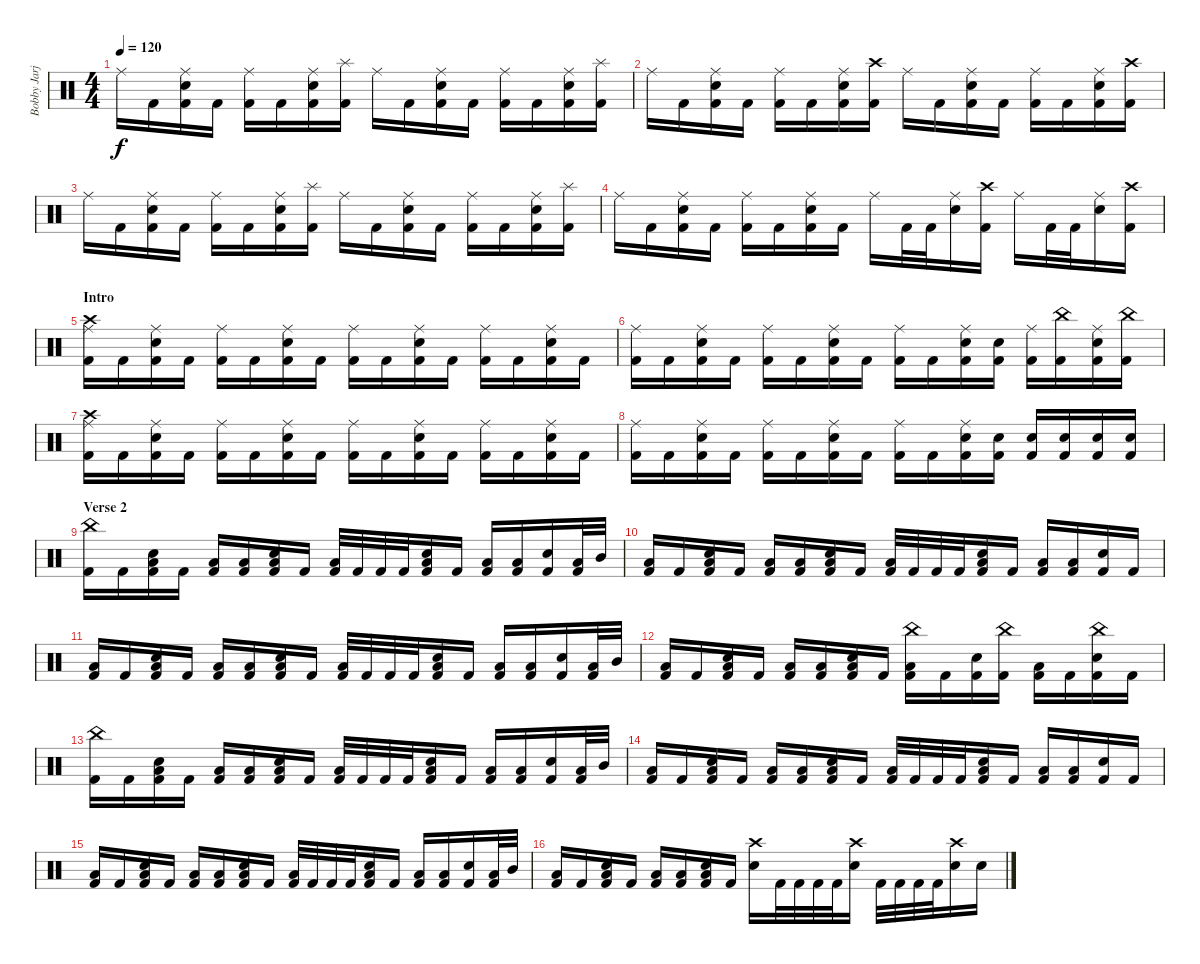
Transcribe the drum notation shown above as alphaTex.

\track ("Bobby Jarjombek" "Bobby Jarj") {instrument percussion}
\staff {score}
\articulation defaults
\ts (4 4)
\tempo 120
\clef neutral
\ks c "Ride (middle)".16{dy f} "Kick (hit) 2".16
("Kick (hit) 2" "Ride (middle)" "Electric Snare (hit)").16 "Kick (hit) 2".16 ("Kick (hit) 2" "Ride (middle)").16 "Kick (hit) 2".16 ("Kick (hit) 2" "Ride (middle)" "Electric Snare (hit)").16 ("Kick (hit) 2" "Splash (hit)").16 "Ride (middle)".16 "Kick (hit) 2".16 ("Kick (hit) 2" "Ride (middle)" "Electric Snare (hit)").16 "Kick (hit) 2".16 ("Kick (hit) 2" "Ride (middle)").16 "Kick (hit) 2".16 ("Kick (hit) 2" "Ride (middle)" "Electric Snare (hit)").16 ("Kick (hit) 2" "Splash (hit)").16 |
"Ride (middle)".16 "Kick (hit) 2".16 ("Kick (hit) 2" "Ride (middle)" "Electric Snare (hit)").16 "Kick (hit) 2".16 ("Kick (hit) 2" "Ride (middle)").16 "Kick (hit) 2".16 ("Kick (hit) 2" "Ride (middle)" "Electric Snare (hit)").16 ("Kick (hit) 2" "Crash high (hit)").16 "Ride (middle)".16 "Kick (hit) 2".16 ("Kick (hit) 2" "Ride (middle)" "Electric Snare (hit)").16 "Kick (hit) 2".16 ("Kick (hit) 2" "Ride (middle)").16 "Kick (hit) 2".16 ("Kick (hit) 2" "Ride (middle)" "Electric Snare (hit)").16 ("Kick (hit) 2" "Crash high (hit)").16 |
"Ride (middle)".16 "Kick (hit) 2".16 ("Kick (hit) 2" "Ride (middle)" "Electric Snare (hit)").16 "Kick (hit) 2".16 ("Kick (hit) 2" "Ride (middle)").16 "Kick (hit) 2".16 ("Kick (hit) 2" "Ride (middle)" "Electric Snare (hit)").16 ("Kick (hit) 2" "Splash (hit)").16 "Ride (middle)".16 "Kick (hit) 2".16 ("Kick (hit) 2" "Ride (middle)" "Electric Snare (hit)").16 "Kick (hit) 2".16 ("Kick (hit) 2" "Ride (middle)").16 "Kick (hit) 2".16 ("Kick (hit) 2" "Ride (middle)" "Electric Snare (hit)").16 ("Kick (hit) 2" "Splash (hit)").16 |
"Ride (middle)".16 "Kick (hit) 2".16 ("Kick (hit) 2" "Ride (middle)" "Electric Snare (hit)").16 "Kick (hit) 2".16 ("Kick (hit) 2" "Ride (middle)").16 "Kick (hit) 2".16 ("Kick (hit) 2" "Ride (middle)" "Electric Snare (hit)").16 "Kick (hit) 2".16 "Ride (middle)".16 "Kick (hit) 2".32 "Kick (hit) 2".32 ("Ride (middle)" "Electric Snare (hit)").16 ("Kick (hit) 2" "Crash high (hit)").16 "Ride (middle)".16 "Kick (hit) 2".32 "Kick (hit) 2".32 ("Ride (middle)" "Electric Snare (hit)").16 ("Kick (hit) 2" "Crash high (hit)").16 |
\section ("" "Intro")
("Kick (hit) 2" "Crash high (hit)" "Ride (middle)").16 "Kick (hit) 2".16 ("Kick (hit) 2" "Ride (middle)" "Electric Snare (hit)").16 "Kick (hit) 2".16 ("Kick (hit) 2" "Ride (middle)").16 "Kick (hit) 2".16 ("Kick (hit) 2" "Ride (middle)" "Electric Snare (hit)").16 "Kick (hit) 2".16 ("Kick (hit) 2" "Ride (middle)").16 "Kick (hit) 2".16 ("Kick (hit) 2" "Ride (middle)" "Electric Snare (hit)").16 "Kick (hit) 2".16 ("Kick (hit) 2" "Ride (middle)").16 "Kick (hit) 2".16 ("Kick (hit) 2" "Ride (middle)" "Electric Snare (hit)").16 "Kick (hit) 2".16 |
("Kick (hit) 2" "Ride (middle)").16 "Kick (hit) 2".16 ("Kick (hit) 2" "Ride (middle)" "Electric Snare (hit)").16 "Kick (hit) 2".16 ("Kick (hit) 2" "Ride (middle)").16 "Kick (hit) 2".16 ("Kick (hit) 2" "Ride (middle)" "Electric Snare (hit)").16 "Kick (hit) 2".16 ("Kick (hit) 2" "Ride (middle)").16 "Kick (hit) 2".16 ("Kick (hit) 2" "Ride (middle)" "Electric Snare (hit)").16 ("Kick (hit) 2" "Electric Snare (hit)").16 ("Kick (hit) 2" "Ride (middle)").16 ("Kick (hit) 2" "China (hit)").16 ("Kick (hit) 2" "Ride (middle)" "Electric Snare (hit)").16 ("Kick (hit) 2" "China (hit)").16 |
("Kick (hit) 2" "Crash high (hit)" "Ride (middle)").16 "Kick (hit) 2".16 ("Kick (hit) 2" "Ride (middle)" "Electric Snare (hit)").16 "Kick (hit) 2".16 ("Kick (hit) 2" "Ride (middle)").16 "Kick (hit) 2".16 ("Kick (hit) 2" "Ride (middle)" "Electric Snare (hit)").16 "Kick (hit) 2".16 ("Kick (hit) 2" "Ride (middle)").16 "Kick (hit) 2".16 ("Kick (hit) 2" "Ride (middle)" "Electric Snare (hit)").16 "Kick (hit) 2".16 ("Kick (hit) 2" "Ride (middle)").16 "Kick (hit) 2".16 ("Kick (hit) 2" "Ride (middle)" "Electric Snare (hit)").16 "Kick (hit) 2".16 |
("Kick (hit) 2" "Ride (middle)").16 "Kick (hit) 2".16 ("Kick (hit) 2" "Ride (middle)" "Electric Snare (hit)").16 "Kick (hit) 2".16 ("Kick (hit) 2" "Ride (middle)").16 "Kick (hit) 2".16 ("Kick (hit) 2" "Ride (middle)" "Electric Snare (hit)").16 "Kick (hit) 2".16 ("Kick (hit) 2" "Ride (middle)").16 "Kick (hit) 2".16 ("Kick (hit) 2" "Ride (middle)" "Electric Snare (hit)").16 ("Kick (hit) 2" "Electric Snare (hit)").16 ("Kick (hit) 2" "Electric Snare (hit)").16 ("Kick (hit) 2" "Electric Snare (hit)").16 ("Kick (hit) 2" "Electric Snare (hit)").16 ("Kick (hit) 2" "Electric Snare (hit)").16 |
\section ("" "Verse 2")
("Kick (hit) 2" "China (hit)").16 "Kick (hit) 2".16 ("Kick (hit) 2" "Electric Snare (hit)" "Low Tom (hit)").16 "Kick (hit) 2".16 ("Kick (hit) 2" "Low Tom (hit)").16 ("Kick (hit) 2" "Low Tom (hit)").16 ("Kick (hit) 2" "Electric Snare (hit)" "Low Tom (hit)").16 "Kick (hit) 2".16 ("Kick (hit) 2" "Low Tom (hit)").32 "Kick (hit) 2".32 "Kick (hit) 2".32 "Kick (hit) 2".32 ("Kick (hit) 2" "Electric Snare (hit)" "Low Tom (hit)").16 "Kick (hit) 2".16 ("Kick (hit) 2" "Low Tom (hit)").16 ("Kick (hit) 2" "Low Tom (hit)").16 ("Kick (hit) 2" "Electric Snare (hit)").16 ("Kick (hit) 2" "Low Tom (hit)").32 "Mid Tom (hit)".32 |
("Kick (hit) 2" "Low Tom (hit)").16 "Kick (hit) 2".16 ("Kick (hit) 2" "Electric Snare (hit)" "Low Tom (hit)").16 "Kick (hit) 2".16 ("Kick (hit) 2" "Low Tom (hit)").16 ("Kick (hit) 2" "Low Tom (hit)").16 ("Kick (hit) 2" "Electric Snare (hit)" "Low Tom (hit)").16 "Kick (hit) 2".16 ("Kick (hit) 2" "Low Tom (hit)").32 "Kick (hit) 2".32 "Kick (hit) 2".32 "Kick (hit) 2".32 ("Kick (hit) 2" "Electric Snare (hit)" "Low Tom (hit)").16 "Kick (hit) 2".16 ("Kick (hit) 2" "Low Tom (hit)").16 ("Kick (hit) 2" "Low Tom (hit)").16 ("Kick (hit) 2" "Electric Snare (hit)").16 "Kick (hit) 2".16 |
("Kick (hit) 2" "Low Tom (hit)").16 "Kick (hit) 2".16 ("Kick (hit) 2" "Electric Snare (hit)" "Low Tom (hit)").16 "Kick (hit) 2".16 ("Kick (hit) 2" "Low Tom (hit)").16 ("Kick (hit) 2" "Low Tom (hit)").16 ("Kick (hit) 2" "Electric Snare (hit)" "Low Tom (hit)").16 "Kick (hit) 2".16 ("Kick (hit) 2" "Low Tom (hit)").32 "Kick (hit) 2".32 "Kick (hit) 2".32 "Kick (hit) 2".32 ("Kick (hit) 2" "Electric Snare (hit)" "Low Tom (hit)").16 "Kick (hit) 2".16 ("Kick (hit) 2" "Low Tom (hit)").16 ("Kick (hit) 2" "Low Tom (hit)").16 ("Kick (hit) 2" "Electric Snare (hit)").16 ("Kick (hit) 2" "Low Tom (hit)").32 "Mid Tom (hit)".32 |
("Kick (hit) 2" "Low Tom (hit)").16 "Kick (hit) 2".16 ("Kick (hit) 2" "Electric Snare (hit)" "Low Tom (hit)").16 "Kick (hit) 2".16 ("Kick (hit) 2" "Low Tom (hit)").16 ("Kick (hit) 2" "Low Tom (hit)").16 ("Kick (hit) 2" "Electric Snare (hit)" "Low Tom (hit)").16 "Kick (hit) 2".16 ("Kick (hit) 2" "China (hit)" "Low Tom (hit)").16 "Kick (hit) 2".16 ("Kick (hit) 2" "Electric Snare (hit)").16 ("Kick (hit) 2" "China (hit)").16 ("Kick (hit) 2" "Low Tom (hit)").16 "Kick (hit) 2".16 ("Kick (hit) 2" "China (hit)" "Electric Snare (hit)").16 "Kick (hit) 2".16 |
("Kick (hit) 2" "China (hit)").16 "Kick (hit) 2".16 ("Kick (hit) 2" "Electric Snare (hit)" "Low Tom (hit)").16 "Kick (hit) 2".16 ("Kick (hit) 2" "Low Tom (hit)").16 ("Kick (hit) 2" "Low Tom (hit)").16 ("Kick (hit) 2" "Electric Snare (hit)" "Low Tom (hit)").16 "Kick (hit) 2".16 ("Kick (hit) 2" "Low Tom (hit)").32 "Kick (hit) 2".32 "Kick (hit) 2".32 "Kick (hit) 2".32 ("Kick (hit) 2" "Electric Snare (hit)" "Low Tom (hit)").16 "Kick (hit) 2".16 ("Kick (hit) 2" "Low Tom (hit)").16 ("Kick (hit) 2" "Low Tom (hit)").16 ("Kick (hit) 2" "Electric Snare (hit)").16 ("Kick (hit) 2" "Low Tom (hit)").32 "Mid Tom (hit)".32 |
("Kick (hit) 2" "Low Tom (hit)").16 "Kick (hit) 2".16 ("Kick (hit) 2" "Electric Snare (hit)" "Low Tom (hit)").16 "Kick (hit) 2".16 ("Kick (hit) 2" "Low Tom (hit)").16 ("Kick (hit) 2" "Low Tom (hit)").16 ("Kick (hit) 2" "Electric Snare (hit)" "Low Tom (hit)").16 "Kick (hit) 2".16 ("Kick (hit) 2" "Low Tom (hit)").32 "Kick (hit) 2".32 "Kick (hit) 2".32 "Kick (hit) 2".32 ("Kick (hit) 2" "Electric Snare (hit)" "Low Tom (hit)").16 "Kick (hit) 2".16 ("Kick (hit) 2" "Low Tom (hit)").16 ("Kick (hit) 2" "Low Tom (hit)").16 ("Kick (hit) 2" "Electric Snare (hit)").16 "Kick (hit) 2".16 |
("Kick (hit) 2" "Low Tom (hit)").16 "Kick (hit) 2".16 ("Kick (hit) 2" "Electric Snare (hit)" "Low Tom (hit)").16 "Kick (hit) 2".16 ("Kick (hit) 2" "Low Tom (hit)").16 ("Kick (hit) 2" "Low Tom (hit)").16 ("Kick (hit) 2" "Electric Snare (hit)" "Low Tom (hit)").16 "Kick (hit) 2".16 ("Kick (hit) 2" "Low Tom (hit)").32 "Kick (hit) 2".32 "Kick (hit) 2".32 "Kick (hit) 2".32 ("Kick (hit) 2" "Electric Snare (hit)" "Low Tom (hit)").16 "Kick (hit) 2".16 ("Kick (hit) 2" "Low Tom (hit)").16 ("Kick (hit) 2" "Low Tom (hit)").16 ("Kick (hit) 2" "Electric Snare (hit)").16 ("Kick (hit) 2" "Low Tom (hit)").32 "Mid Tom (hit)".32 |
("Kick (hit) 2" "Low Tom (hit)").16 "Kick (hit) 2".16 ("Kick (hit) 2" "Electric Snare (hit)" "Low Tom (hit)").16 "Kick (hit) 2".16 ("Kick (hit) 2" "Low Tom (hit)").16 ("Kick (hit) 2" "Low Tom (hit)").16 ("Kick (hit) 2" "Electric Snare (hit)" "Low Tom (hit)").16 "Kick (hit) 2".16 ("Crash high (hit)" "Electric Snare (hit)").16 "Kick (hit) 2".32 "Kick (hit) 2".32 "Kick (hit) 2".32 "Kick (hit) 2".32 ("Crash high (hit)" "Electric Snare (hit)").16 "Kick (hit) 2".32 "Kick (hit) 2".32 "Kick (hit) 2".32 "Kick (hit) 2".32 ("Crash high (hit)" "Electric Snare (hit)").16 "Electric Snare (hit)".16
